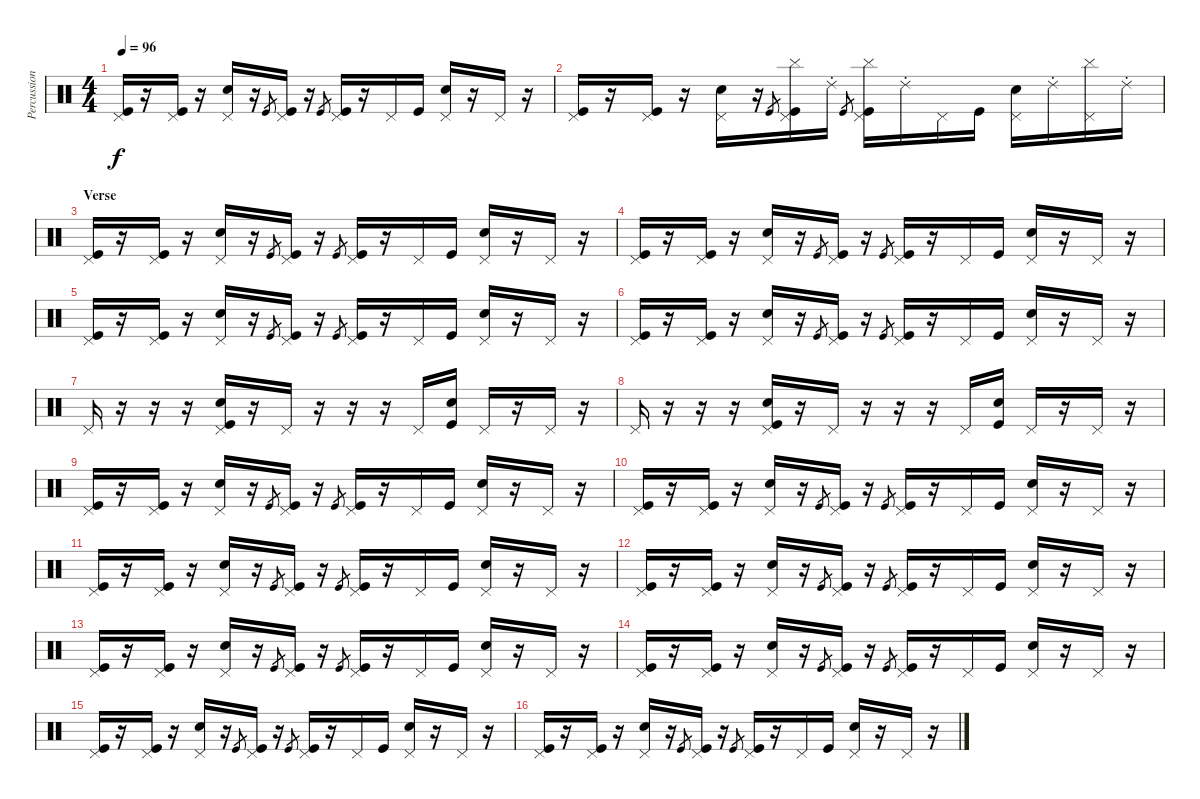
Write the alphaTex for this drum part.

\track ("Percussions" "Percussion") {instrument percussion}
\staff {score}
\articulation defaults
\ts (4 4)
\tempo 96
\clef neutral
\ks c
("Pedal Hi-Hat (hit)" "Kick (hit)").16{dy f} r.16 ("Pedal Hi-Hat (hit)" "Kick (hit)").16 r.16 ("Pedal Hi-Hat (hit)" "Electric Snare (hit)").16 r.16 "Kick (hit)".8{gr} ("Pedal Hi-Hat (hit)" "Kick (hit)").16 r.16 "Kick (hit)".8{gr} ("Pedal Hi-Hat (hit)" "Kick (hit)").16 r.16 "Pedal Hi-Hat (hit)".16 "Kick (hit)".16 ("Pedal Hi-Hat (hit)" "Electric Snare (hit)").16 r.16 "Pedal Hi-Hat (hit)".16 r.16 |
("Pedal Hi-Hat (hit)" "Kick (hit)").16 r.16 ("Pedal Hi-Hat (hit)" "Kick (hit)").16 r.16 ("Pedal Hi-Hat (hit)" "Electric Snare (hit)").16 r.16 "Kick (hit)".8{gr} ("Pedal Hi-Hat (hit)" "Cymbal (hit)" "Kick (hit)").16 "Ride (choke) 2".16 "Kick (hit)".8{gr} ("Pedal Hi-Hat (hit)" "Cymbal (hit)" "Kick (hit)").16 "Ride (choke) 2".16 "Pedal Hi-Hat (hit)".16 "Kick (hit)".16 ("Pedal Hi-Hat (hit)" "Electric Snare (hit)").16 "Ride (choke) 2".16 ("Pedal Hi-Hat (hit)" "Cymbal (hit)").16 "Ride (choke) 2".16 |
\section ("" "Verse ")
("Pedal Hi-Hat (hit)" "Kick (hit)").16 r.16 ("Pedal Hi-Hat (hit)" "Kick (hit)").16 r.16 ("Pedal Hi-Hat (hit)" "Electric Snare (hit)").16 r.16 "Kick (hit)".8{gr} ("Pedal Hi-Hat (hit)" "Kick (hit)").16 r.16 "Kick (hit)".8{gr} ("Pedal Hi-Hat (hit)" "Kick (hit)").16 r.16 "Pedal Hi-Hat (hit)".16 "Kick (hit)".16 ("Pedal Hi-Hat (hit)" "Electric Snare (hit)").16 r.16 "Pedal Hi-Hat (hit)".16 r.16 |
("Pedal Hi-Hat (hit)" "Kick (hit)").16 r.16 ("Pedal Hi-Hat (hit)" "Kick (hit)").16 r.16 ("Pedal Hi-Hat (hit)" "Electric Snare (hit)").16 r.16 "Kick (hit)".8{gr} ("Pedal Hi-Hat (hit)" "Kick (hit)").16 r.16 "Kick (hit)".8{gr} ("Pedal Hi-Hat (hit)" "Kick (hit)").16 r.16 "Pedal Hi-Hat (hit)".16 "Kick (hit)".16 ("Pedal Hi-Hat (hit)" "Electric Snare (hit)").16 r.16 "Pedal Hi-Hat (hit)".16 r.16 |
("Pedal Hi-Hat (hit)" "Kick (hit)").16 r.16 ("Pedal Hi-Hat (hit)" "Kick (hit)").16 r.16 ("Pedal Hi-Hat (hit)" "Electric Snare (hit)").16 r.16 "Kick (hit)".8{gr} ("Pedal Hi-Hat (hit)" "Kick (hit)").16 r.16 "Kick (hit)".8{gr} ("Pedal Hi-Hat (hit)" "Kick (hit)").16 r.16 "Pedal Hi-Hat (hit)".16 "Kick (hit)".16 ("Pedal Hi-Hat (hit)" "Electric Snare (hit)").16 r.16 "Pedal Hi-Hat (hit)".16 r.16 |
("Pedal Hi-Hat (hit)" "Kick (hit)").16 r.16 ("Pedal Hi-Hat (hit)" "Kick (hit)").16 r.16 ("Pedal Hi-Hat (hit)" "Electric Snare (hit)").16 r.16 "Kick (hit)".8{gr} ("Pedal Hi-Hat (hit)" "Kick (hit)").16 r.16 "Kick (hit)".8{gr} ("Pedal Hi-Hat (hit)" "Kick (hit)").16 r.16 "Pedal Hi-Hat (hit)".16 "Kick (hit)".16 ("Pedal Hi-Hat (hit)" "Electric Snare (hit)").16 r.16 "Pedal Hi-Hat (hit)".16 r.16 |
"Pedal Hi-Hat (hit)".16{volume 8} r.16 r.16 r.16 ("Pedal Hi-Hat (hit)" "Snare (hit) 2" "Kick (hit)").16 r.16 "Pedal Hi-Hat (hit)".16 r.16 r.16 r.16 "Pedal Hi-Hat (hit)".16 ("Snare (hit) 2" "Kick (hit)").16 "Pedal Hi-Hat (hit)".16 r.16 "Pedal Hi-Hat (hit)".16 r.16 |
"Pedal Hi-Hat (hit)".16{volume 8} r.16 r.16 r.16 ("Pedal Hi-Hat (hit)" "Snare (hit) 2" "Kick (hit)").16 r.16 "Pedal Hi-Hat (hit)".16 r.16 r.16 r.16 "Pedal Hi-Hat (hit)".16 ("Snare (hit) 2" "Kick (hit)").16 "Pedal Hi-Hat (hit)".16 r.16 "Pedal Hi-Hat (hit)".16 r.16 |
("Pedal Hi-Hat (hit)" "Kick (hit)").16 r.16 ("Pedal Hi-Hat (hit)" "Kick (hit)").16 r.16 ("Pedal Hi-Hat (hit)" "Electric Snare (hit)").16 r.16 "Kick (hit)".8{gr} ("Pedal Hi-Hat (hit)" "Kick (hit)").16 r.16 "Kick (hit)".8{gr} ("Pedal Hi-Hat (hit)" "Kick (hit)").16 r.16 "Pedal Hi-Hat (hit)".16 "Kick (hit)".16 ("Pedal Hi-Hat (hit)" "Electric Snare (hit)").16 r.16 "Pedal Hi-Hat (hit)".16 r.16 |
("Pedal Hi-Hat (hit)" "Kick (hit)").16{volume 14} r.16 ("Pedal Hi-Hat (hit)" "Kick (hit)").16 r.16 ("Pedal Hi-Hat (hit)" "Electric Snare (hit)").16 r.16 "Kick (hit)".8{gr} ("Pedal Hi-Hat (hit)" "Kick (hit)").16 r.16 "Kick (hit)".8{gr} ("Pedal Hi-Hat (hit)" "Kick (hit)").16 r.16 "Pedal Hi-Hat (hit)".16 "Kick (hit)".16 ("Pedal Hi-Hat (hit)" "Electric Snare (hit)").16 r.16 "Pedal Hi-Hat (hit)".16 r.16 |
("Pedal Hi-Hat (hit)" "Kick (hit)").16 r.16 ("Pedal Hi-Hat (hit)" "Kick (hit)").16 r.16 ("Pedal Hi-Hat (hit)" "Electric Snare (hit)").16 r.16 "Kick (hit)".8{gr} ("Pedal Hi-Hat (hit)" "Kick (hit)").16 r.16 "Kick (hit)".8{gr} ("Pedal Hi-Hat (hit)" "Kick (hit)").16 r.16 "Pedal Hi-Hat (hit)".16 "Kick (hit)".16 ("Pedal Hi-Hat (hit)" "Electric Snare (hit)").16 r.16 "Pedal Hi-Hat (hit)".16 r.16 |
("Pedal Hi-Hat (hit)" "Kick (hit)").16 r.16 ("Pedal Hi-Hat (hit)" "Kick (hit)").16 r.16 ("Pedal Hi-Hat (hit)" "Electric Snare (hit)").16 r.16 "Kick (hit)".8{gr} ("Pedal Hi-Hat (hit)" "Kick (hit)").16 r.16 "Kick (hit)".8{gr} ("Pedal Hi-Hat (hit)" "Kick (hit)").16 r.16 "Pedal Hi-Hat (hit)".16 "Kick (hit)".16 ("Pedal Hi-Hat (hit)" "Electric Snare (hit)").16 r.16 "Pedal Hi-Hat (hit)".16 r.16 |
("Pedal Hi-Hat (hit)" "Kick (hit)").16 r.16 ("Pedal Hi-Hat (hit)" "Kick (hit)").16 r.16 ("Pedal Hi-Hat (hit)" "Electric Snare (hit)").16 r.16 "Kick (hit)".8{gr} ("Pedal Hi-Hat (hit)" "Kick (hit)").16 r.16 "Kick (hit)".8{gr} ("Pedal Hi-Hat (hit)" "Kick (hit)").16 r.16 "Pedal Hi-Hat (hit)".16 "Kick (hit)".16 ("Pedal Hi-Hat (hit)" "Electric Snare (hit)").16 r.16 "Pedal Hi-Hat (hit)".16 r.16 |
("Pedal Hi-Hat (hit)" "Kick (hit)").16 r.16 ("Pedal Hi-Hat (hit)" "Kick (hit)").16 r.16 ("Pedal Hi-Hat (hit)" "Electric Snare (hit)").16 r.16 "Kick (hit)".8{gr} ("Pedal Hi-Hat (hit)" "Kick (hit)").16 r.16 "Kick (hit)".8{gr} ("Pedal Hi-Hat (hit)" "Kick (hit)").16 r.16 "Pedal Hi-Hat (hit)".16 "Kick (hit)".16 ("Pedal Hi-Hat (hit)" "Electric Snare (hit)").16 r.16 "Pedal Hi-Hat (hit)".16 r.16 |
("Pedal Hi-Hat (hit)" "Kick (hit)").16 r.16 ("Pedal Hi-Hat (hit)" "Kick (hit)").16 r.16 ("Pedal Hi-Hat (hit)" "Electric Snare (hit)").16 r.16 "Kick (hit)".8{gr} ("Pedal Hi-Hat (hit)" "Kick (hit)").16 r.16 "Kick (hit)".8{gr} ("Pedal Hi-Hat (hit)" "Kick (hit)").16 r.16 "Pedal Hi-Hat (hit)".16 "Kick (hit)".16 ("Pedal Hi-Hat (hit)" "Electric Snare (hit)").16 r.16 "Pedal Hi-Hat (hit)".16 r.16 |
("Pedal Hi-Hat (hit)" "Kick (hit)").16 r.16 ("Pedal Hi-Hat (hit)" "Kick (hit)").16 r.16 ("Pedal Hi-Hat (hit)" "Electric Snare (hit)").16 r.16 "Kick (hit)".8{gr} ("Pedal Hi-Hat (hit)" "Kick (hit)").16 r.16 "Kick (hit)".8{gr} ("Pedal Hi-Hat (hit)" "Kick (hit)").16 r.16 "Pedal Hi-Hat (hit)".16 "Kick (hit)".16 ("Pedal Hi-Hat (hit)" "Electric Snare (hit)").16 r.16 "Pedal Hi-Hat (hit)".16 r.16
